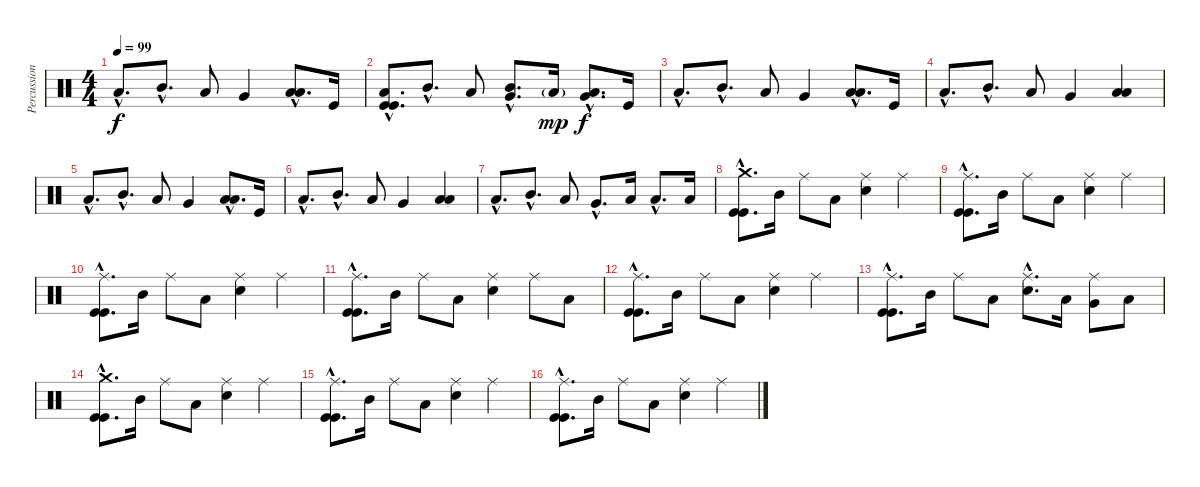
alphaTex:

\track ("Percussions2" "Percussion") {instrument percussion}
\staff {score}
\articulation defaults
\ts (4 4)
\tempo 99
\clef neutral
\ks c "Low Floor Tom (hit)"{hac}.8{d dy f} "Mid Tom (hit)"{hac}.8{d} "Low Tom (hit)".8 "Very Low Tom (hit)".4
("Low Floor Tom (hit)"{hac} "Low Floor Tom (hit)"{hac}).8{d} "Kick (hit)".16 |
("Low Floor Tom (hit)"{hac} "Kick (hit)"{hac} "Kick (hit)"{hac}).8{d} "Mid Tom (hit)"{hac}.8{d} "Low Tom (hit)".8 ("Very Low Tom (hit)"{hac} "Mid Tom (hit)"{hac}).8{d} "Low Floor Tom (hit)"{g}.16{dy mp} ("Very Low Tom (hit)"{hac} "Low Floor Tom (hit)"{hac}).8{d dy f} "Kick (hit)".16 |
"Low Floor Tom (hit)"{hac}.8{d} "Mid Tom (hit)"{hac}.8{d} "Low Tom (hit)".8 "Very Low Tom (hit)".4 ("Low Floor Tom (hit)"{hac} "Low Floor Tom (hit)"{hac}).8{d} "Kick (hit)".16 |
"Low Floor Tom (hit)"{hac}.8{d} "Mid Tom (hit)"{hac}.8{d} "Low Tom (hit)".8 "Very Low Tom (hit)".4 ("Low Floor Tom (hit)" "Low Floor Tom (hit)").4 |
"Low Floor Tom (hit)"{hac}.8{d} "Mid Tom (hit)"{hac}.8{d} "Low Tom (hit)".8 "Very Low Tom (hit)".4 ("Low Floor Tom (hit)"{hac} "Low Floor Tom (hit)"{hac}).8{d} "Kick (hit)".16 |
"Low Floor Tom (hit)"{hac}.8{d} "Mid Tom (hit)"{hac}.8{d} "Low Tom (hit)".8 "Very Low Tom (hit)".4 ("Low Floor Tom (hit)" "Low Floor Tom (hit)").4 |
"Low Floor Tom (hit)"{hac}.8{d} "Mid Tom (hit)"{hac}.8{d} "Low Tom (hit)".8 "Very Low Tom (hit)"{hac}.8{d} "Low Floor Tom (hit)".16 "Low Floor Tom (hit)"{hac}.8{d} "Low Floor Tom (hit)".16 |
("Crash medium (hit)"{hac} "Kick (hit)"{hac} "Kick (hit)"{hac}).8{d} "Mid Tom (hit)".16 "Ride (middle)".8 "Low Tom (hit)".8 ("Electric Snare (hit)" "Ride (middle)").4 "Ride (middle)".4 |
("Ride (middle)"{hac} "Kick (hit)"{hac} "Kick (hit)"{hac}).8{d} "Mid Tom (hit)".16 "Ride (middle)".8 "Low Tom (hit)".8 ("Electric Snare (hit)" "Ride (middle)").4 "Ride (middle)".4 |
("Ride (middle)"{hac} "Kick (hit)"{hac} "Kick (hit)"{hac}).8{d} "Mid Tom (hit)".16 "Ride (middle)".8 "Low Tom (hit)".8 ("Electric Snare (hit)" "Ride (middle)").4 "Ride (middle)".4 |
("Ride (middle)"{hac} "Kick (hit)"{hac} "Kick (hit)"{hac}).8{d} "Mid Tom (hit)".16 "Ride (middle)".8 "Low Tom (hit)".8 ("Electric Snare (hit)" "Ride (middle)").4 "Ride (middle)".8 "Low Tom (hit)".8 |
("Ride (middle)"{hac} "Kick (hit)"{hac} "Kick (hit)"{hac}).8{d} "Mid Tom (hit)".16 "Ride (middle)".8 "Low Tom (hit)".8 ("Electric Snare (hit)" "Ride (middle)").4 "Ride (middle)".4 |
("Ride (middle)"{hac} "Kick (hit)"{hac} "Kick (hit)"{hac}).8{d} "Mid Tom (hit)".16 "Ride (middle)".8 "Low Tom (hit)".8 ("Electric Snare (hit)"{hac} "Ride (middle)"{hac}).8{d} "Low Tom (hit)".16 ("Very Low Tom (hit)" "Ride (middle)").8 "Low Floor Tom (hit)".8 |
("Crash medium (hit)"{hac} "Kick (hit)"{hac} "Kick (hit)"{hac}).8{d} "Mid Tom (hit)".16 "Ride (middle)".8 "Low Tom (hit)".8 ("Electric Snare (hit)" "Ride (middle)").4 "Ride (middle)".4 |
("Ride (middle)"{hac} "Kick (hit)"{hac} "Kick (hit)"{hac}).8{d} "Mid Tom (hit)".16 "Ride (middle)".8 "Low Tom (hit)".8 ("Electric Snare (hit)" "Ride (middle)").4 "Ride (middle)".4 |
("Ride (middle)"{hac} "Kick (hit)"{hac} "Kick (hit)"{hac}).8{d} "Mid Tom (hit)".16 "Ride (middle)".8 "Low Tom (hit)".8 ("Electric Snare (hit)" "Ride (middle)").4 "Ride (middle)".4
